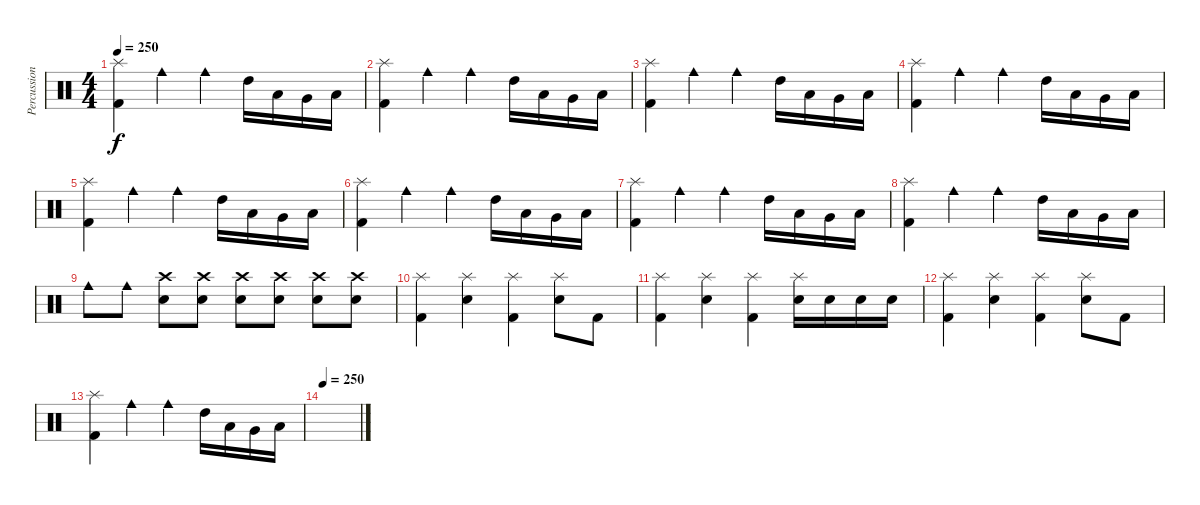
\track ("Percussions" "Percussion") {instrument percussion}
\staff {score}
\articulation defaults
\ts (4 4)
\tempo 250
\clef neutral
\ks c
("Splash (hit)" "Kick (hit) 2").4{dy f} "Cowbell medium (hit)".4 "Cowbell medium (hit)".4 "High Tom (hit)".16 "Low Tom (hit)".16 "Very Low Tom (hit)".16 "Low Floor Tom (hit)".16 |
("Splash (hit)" "Kick (hit) 2").4 "Cowbell medium (hit)".4 "Cowbell medium (hit)".4 "High Tom (hit)".16 "Low Tom (hit)".16 "Very Low Tom (hit)".16 "Low Floor Tom (hit)".16 |
("Splash (hit)" "Kick (hit) 2").4 "Cowbell medium (hit)".4 "Cowbell medium (hit)".4 "High Tom (hit)".16 "Low Tom (hit)".16 "Very Low Tom (hit)".16 "Low Floor Tom (hit)".16 |
("Splash (hit)" "Kick (hit) 2").4 "Cowbell medium (hit)".4 "Cowbell medium (hit)".4 "High Tom (hit)".16 "Low Tom (hit)".16 "Very Low Tom (hit)".16 "Low Floor Tom (hit)".16 |
("Splash (hit)" "Kick (hit) 2").4 "Cowbell medium (hit)".4 "Cowbell medium (hit)".4 "High Tom (hit)".16 "Low Tom (hit)".16 "Very Low Tom (hit)".16 "Low Floor Tom (hit)".16 |
("Splash (hit)" "Kick (hit) 2").4 "Cowbell medium (hit)".4 "Cowbell medium (hit)".4 "High Tom (hit)".16 "Low Tom (hit)".16 "Very Low Tom (hit)".16 "Low Floor Tom (hit)".16 |
("Splash (hit)" "Kick (hit) 2").4 "Cowbell medium (hit)".4 "Cowbell medium (hit)".4 "High Tom (hit)".16 "Low Tom (hit)".16 "Very Low Tom (hit)".16 "Low Floor Tom (hit)".16 |
("Splash (hit)" "Kick (hit) 2").4 "Cowbell medium (hit)".4 "Cowbell medium (hit)".4 "High Tom (hit)".16 "Low Tom (hit)".16 "Very Low Tom (hit)".16 "Low Floor Tom (hit)".16 |
"Cowbell medium (hit)".8 "Cowbell medium (hit)".8 ("Crash high (hit)" "Snare (hit) 2").8 ("Crash high (hit)" "Snare (hit) 2").8 ("Crash high (hit)" "Snare (hit) 2").8 ("Crash high (hit)" "Snare (hit) 2").8 ("Crash high (hit)" "Snare (hit) 2").8 ("Crash high (hit)" "Snare (hit) 2").8 |
("Splash (hit)" "Kick (hit) 2").4 ("Splash (hit)" "Snare (hit) 2").4 ("Splash (hit)" "Kick (hit) 2").4 ("Splash (hit)" "Snare (hit) 2").8 "Kick (hit) 2".8 |
("Splash (hit)" "Kick (hit) 2").4 ("Splash (hit)" "Snare (hit) 2").4 ("Splash (hit)" "Kick (hit) 2").4 ("Splash (hit)" "Snare (hit) 2").16 "Snare (hit) 2".16 "Snare (hit) 2".16 "Snare (hit) 2".16 |
("Splash (hit)" "Kick (hit) 2").4 ("Splash (hit)" "Snare (hit) 2").4 ("Splash (hit)" "Kick (hit) 2").4 ("Splash (hit)" "Snare (hit) 2").8 "Kick (hit) 2".8 |
("Splash (hit)" "Kick (hit) 2").4 "Cowbell medium (hit)".4 "Cowbell medium (hit)".4 "High Tom (hit)".16 "Low Tom (hit)".16 "Very Low Tom (hit)".16 "Low Floor Tom (hit)".16 |
\tempo 250
